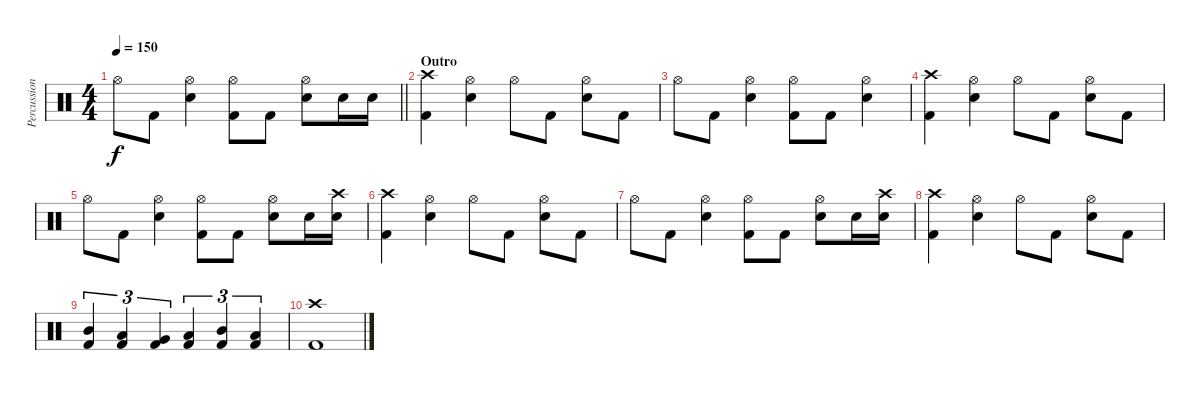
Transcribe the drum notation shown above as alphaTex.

\track ("Percussion" "Percussion") {instrument percussion}
\staff {score}
\articulation defaults
\ts (4 4)
\tempo 150
\clef neutral
\barLineRight lightlight
\ks c "Hi-Hat (open)".8{dy f} "Kick (hit) 2".8
("Hi-Hat (open)" "Electric Snare (hit)").4 ("Hi-Hat (open)" "Kick (hit) 2").8 "Kick (hit) 2".8 ("Hi-Hat (open)" "Electric Snare (hit)").8 "Electric Snare (hit)".16 "Electric Snare (hit)".16 |
\section ("" "Outro")
("Crash high (hit)" "Kick (hit) 2").4 ("Hi-Hat (open)" "Electric Snare (hit)").4 "Hi-Hat (open)".8 "Kick (hit) 2".8 ("Hi-Hat (open)" "Electric Snare (hit)").8 "Kick (hit) 2".8 |
"Hi-Hat (open)".8 "Kick (hit) 2".8 ("Hi-Hat (open)" "Electric Snare (hit)").4 ("Hi-Hat (open)" "Kick (hit) 2").8 "Kick (hit) 2".8 ("Hi-Hat (open)" "Electric Snare (hit)").4 |
("Crash high (hit)" "Kick (hit) 2").4 ("Hi-Hat (open)" "Electric Snare (hit)").4 "Hi-Hat (open)".8 "Kick (hit) 2".8 ("Hi-Hat (open)" "Electric Snare (hit)").8 "Kick (hit) 2".8 |
"Hi-Hat (open)".8 "Kick (hit) 2".8 ("Hi-Hat (open)" "Electric Snare (hit)").4 ("Hi-Hat (open)" "Kick (hit) 2").8 "Kick (hit) 2".8 ("Hi-Hat (open)" "Electric Snare (hit)").8 "Electric Snare (hit)".16 ("Crash high (hit)" "Electric Snare (hit)").16 |
("Crash high (hit)" "Kick (hit) 2").4 ("Hi-Hat (open)" "Electric Snare (hit)").4 "Hi-Hat (open)".8 "Kick (hit) 2".8 ("Hi-Hat (open)" "Electric Snare (hit)").8 "Kick (hit) 2".8 |
"Hi-Hat (open)".8 "Kick (hit) 2".8 ("Hi-Hat (open)" "Electric Snare (hit)").4 ("Hi-Hat (open)" "Kick (hit) 2").8 "Kick (hit) 2".8 ("Hi-Hat (open)" "Electric Snare (hit)").8 "Electric Snare (hit)".16 ("Crash high (hit)" "Electric Snare (hit)").16 |
("Crash high (hit)" "Kick (hit) 2").4 ("Hi-Hat (open)" "Electric Snare (hit)").4 "Hi-Hat (open)".8 "Kick (hit) 2".8 ("Hi-Hat (open)" "Electric Snare (hit)").8 "Kick (hit) 2".8 |
("Mid Tom (hit)" "Kick (hit) 2").4{tu (3 2)} ("Low Tom (hit)" "Kick (hit) 2").4{tu (3 2)} ("Very Low Tom (hit)" "Kick (hit) 2").4{tu (3 2)} ("Low Tom (hit)" "Kick (hit) 2").4{tu (3 2)} ("Mid Tom (hit)" "Kick (hit) 2").4{tu (3 2)} ("Low Tom (hit)" "Kick (hit) 2").4{tu (3 2)} |
("Crash high (hit)" "Kick (hit) 2").1
